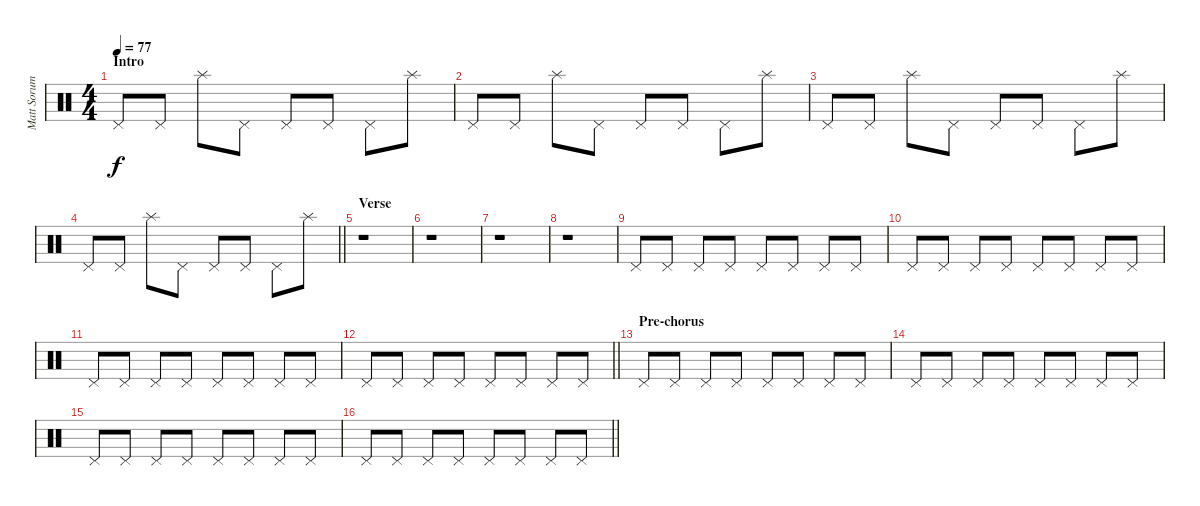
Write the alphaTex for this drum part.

\track ("Matt Sorum (Drums)" "Matt Sorum") {instrument percussion}
\staff {score}
\articulation defaults
\ts (4 4)
\section ("" "Intro")
\tempo 77
\clef neutral
\ks c "Pedal Hi-Hat (hit)".8{dy f} "Pedal Hi-Hat (hit)".8 "Splash (hit)".8 "Pedal Hi-Hat (hit)".8 "Pedal Hi-Hat (hit)".8 "Pedal Hi-Hat (hit)".8 "Pedal Hi-Hat (hit)".8 "Splash (hit)".8
|
"Pedal Hi-Hat (hit)".8 "Pedal Hi-Hat (hit)".8 "Splash (hit)".8 "Pedal Hi-Hat (hit)".8 "Pedal Hi-Hat (hit)".8 "Pedal Hi-Hat (hit)".8 "Pedal Hi-Hat (hit)".8 "Splash (hit)".8 |
"Pedal Hi-Hat (hit)".8 "Pedal Hi-Hat (hit)".8 "Splash (hit)".8 "Pedal Hi-Hat (hit)".8 "Pedal Hi-Hat (hit)".8 "Pedal Hi-Hat (hit)".8 "Pedal Hi-Hat (hit)".8 "Splash (hit)".8 |
\barLineRight lightlight "Pedal Hi-Hat (hit)".8 "Pedal Hi-Hat (hit)".8 "Splash (hit)".8 "Pedal Hi-Hat (hit)".8 "Pedal Hi-Hat (hit)".8 "Pedal Hi-Hat (hit)".8 "Pedal Hi-Hat (hit)".8 "Splash (hit)".8
|
\section ("" "Verse")
r.1 |
r.1 |
r.1 |
r.1 |
"Pedal Hi-Hat (hit)".8 "Pedal Hi-Hat (hit)".8 "Pedal Hi-Hat (hit)".8 "Pedal Hi-Hat (hit)".8 "Pedal Hi-Hat (hit)".8 "Pedal Hi-Hat (hit)".8 "Pedal Hi-Hat (hit)".8 "Pedal Hi-Hat (hit)".8 |
"Pedal Hi-Hat (hit)".8 "Pedal Hi-Hat (hit)".8 "Pedal Hi-Hat (hit)".8 "Pedal Hi-Hat (hit)".8 "Pedal Hi-Hat (hit)".8 "Pedal Hi-Hat (hit)".8 "Pedal Hi-Hat (hit)".8 "Pedal Hi-Hat (hit)".8 |
"Pedal Hi-Hat (hit)".8 "Pedal Hi-Hat (hit)".8 "Pedal Hi-Hat (hit)".8 "Pedal Hi-Hat (hit)".8 "Pedal Hi-Hat (hit)".8 "Pedal Hi-Hat (hit)".8 "Pedal Hi-Hat (hit)".8 "Pedal Hi-Hat (hit)".8 |
\barLineRight lightlight "Pedal Hi-Hat (hit)".8 "Pedal Hi-Hat (hit)".8 "Pedal Hi-Hat (hit)".8 "Pedal Hi-Hat (hit)".8 "Pedal Hi-Hat (hit)".8 "Pedal Hi-Hat (hit)".8 "Pedal Hi-Hat (hit)".8 "Pedal Hi-Hat (hit)".8
|
\section ("" "Pre-chorus")
"Pedal Hi-Hat (hit)".8 "Pedal Hi-Hat (hit)".8 "Pedal Hi-Hat (hit)".8 "Pedal Hi-Hat (hit)".8 "Pedal Hi-Hat (hit)".8 "Pedal Hi-Hat (hit)".8 "Pedal Hi-Hat (hit)".8 "Pedal Hi-Hat (hit)".8 |
"Pedal Hi-Hat (hit)".8 "Pedal Hi-Hat (hit)".8 "Pedal Hi-Hat (hit)".8 "Pedal Hi-Hat (hit)".8 "Pedal Hi-Hat (hit)".8 "Pedal Hi-Hat (hit)".8 "Pedal Hi-Hat (hit)".8 "Pedal Hi-Hat (hit)".8 |
"Pedal Hi-Hat (hit)".8 "Pedal Hi-Hat (hit)".8 "Pedal Hi-Hat (hit)".8 "Pedal Hi-Hat (hit)".8 "Pedal Hi-Hat (hit)".8 "Pedal Hi-Hat (hit)".8 "Pedal Hi-Hat (hit)".8 "Pedal Hi-Hat (hit)".8 |
\barLineRight lightlight "Pedal Hi-Hat (hit)".8 "Pedal Hi-Hat (hit)".8 "Pedal Hi-Hat (hit)".8 "Pedal Hi-Hat (hit)".8 "Pedal Hi-Hat (hit)".8 "Pedal Hi-Hat (hit)".8 "Pedal Hi-Hat (hit)".8 "Pedal Hi-Hat (hit)".8
